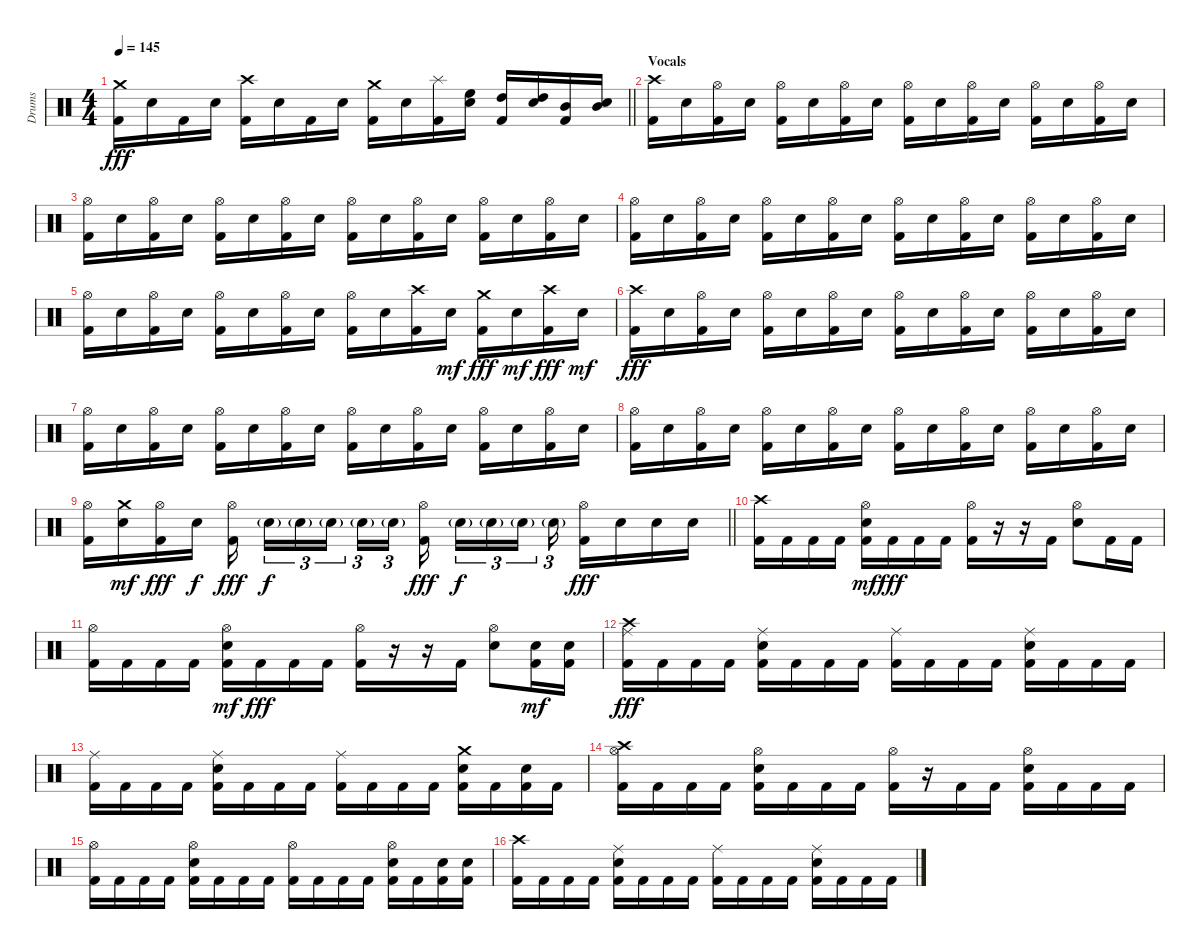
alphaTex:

\track ("Drums" "Drums") {instrument percussion}
\staff {score}
\articulation defaults
\ts (4 4)
\tempo 145
\clef neutral
\barLineRight lightlight
\ks c
("Crash medium (hit)" "Kick (hit) 2").16{dy fff} "Snare (hit) 2".16 "Kick (hit) 2".16 "Snare (hit) 2".16 ("Crash high (hit)" "Kick (hit) 2").16 "Snare (hit) 2".16 "Kick (hit) 2".16 "Snare (hit) 2".16 ("Crash medium (hit)" "Kick (hit) 2").16 "Snare (hit) 2".16 ("Splash (hit)" "Kick (hit) 2").16 ("High Floor Tom (hit)" "Snare (hit) 2").16 ("High Tom (hit)" "Kick (hit) 2").16 ("High Tom (hit)" "Snare (hit) 2").16 ("Mid Tom (hit)" "Kick (hit) 2").16 ("Mid Tom (hit)" "Snare (hit) 2").16 |
\section ("" "Vocals")
("Crash high (hit)" "Kick (hit) 2").16 "Snare (hit) 2".16 ("Hi-Hat (open)" "Kick (hit) 2").16 "Snare (hit) 2".16 ("Hi-Hat (open)" "Kick (hit) 2").16 "Snare (hit) 2".16 ("Hi-Hat (open)" "Kick (hit) 2").16 "Snare (hit) 2".16 ("Hi-Hat (open)" "Kick (hit) 2").16 "Snare (hit) 2".16 ("Hi-Hat (open)" "Kick (hit) 2").16 "Snare (hit) 2".16 ("Hi-Hat (open)" "Kick (hit) 2").16 "Snare (hit) 2".16 ("Hi-Hat (open)" "Kick (hit) 2").16 "Snare (hit) 2".16 |
("Hi-Hat (open)" "Kick (hit) 2").16 "Snare (hit) 2".16 ("Hi-Hat (open)" "Kick (hit) 2").16 "Snare (hit) 2".16 ("Hi-Hat (open)" "Kick (hit) 2").16 "Snare (hit) 2".16 ("Hi-Hat (open)" "Kick (hit) 2").16 "Snare (hit) 2".16 ("Hi-Hat (open)" "Kick (hit) 2").16 "Snare (hit) 2".16 ("Hi-Hat (open)" "Kick (hit) 2").16 "Snare (hit) 2".16 ("Hi-Hat (open)" "Kick (hit) 2").16 "Snare (hit) 2".16 ("Hi-Hat (open)" "Kick (hit) 2").16 "Snare (hit) 2".16 |
("Hi-Hat (open)" "Kick (hit) 2").16 "Snare (hit) 2".16 ("Hi-Hat (open)" "Kick (hit) 2").16 "Snare (hit) 2".16 ("Hi-Hat (open)" "Kick (hit) 2").16 "Snare (hit) 2".16 ("Hi-Hat (open)" "Kick (hit) 2").16 "Snare (hit) 2".16 ("Hi-Hat (open)" "Kick (hit) 2").16 "Snare (hit) 2".16 ("Hi-Hat (open)" "Kick (hit) 2").16 "Snare (hit) 2".16 ("Hi-Hat (open)" "Kick (hit) 2").16 "Snare (hit) 2".16 ("Hi-Hat (open)" "Kick (hit) 2").16 "Snare (hit) 2".16 |
("Hi-Hat (open)" "Kick (hit) 2").16 "Snare (hit) 2".16 ("Hi-Hat (open)" "Kick (hit) 2").16 "Snare (hit) 2".16 ("Hi-Hat (open)" "Kick (hit) 2").16 "Snare (hit) 2".16 ("Hi-Hat (open)" "Kick (hit) 2").16 "Snare (hit) 2".16 ("Hi-Hat (open)" "Kick (hit) 2").16 "Snare (hit) 2".16 ("Crash high (hit)" "Kick (hit) 2").16 "Snare (hit) 2".16{dy mf} ("Crash medium (hit)" "Kick (hit) 2").16{dy fff} "Snare (hit) 2".16{dy mf} ("Crash high (hit)" "Kick (hit) 2").16{dy fff} "Snare (hit) 2".16{dy mf} |
("Crash high (hit)" "Kick (hit) 2").16{dy fff} "Snare (hit) 2".16 ("Hi-Hat (open)" "Kick (hit) 2").16 "Snare (hit) 2".16 ("Hi-Hat (open)" "Kick (hit) 2").16 "Snare (hit) 2".16 ("Hi-Hat (open)" "Kick (hit) 2").16 "Snare (hit) 2".16 ("Hi-Hat (open)" "Kick (hit) 2").16 "Snare (hit) 2".16 ("Hi-Hat (open)" "Kick (hit) 2").16 "Snare (hit) 2".16 ("Hi-Hat (open)" "Kick (hit) 2").16 "Snare (hit) 2".16 ("Hi-Hat (open)" "Kick (hit) 2").16 "Snare (hit) 2".16 |
("Hi-Hat (open)" "Kick (hit) 2").16 "Snare (hit) 2".16 ("Hi-Hat (open)" "Kick (hit) 2").16 "Snare (hit) 2".16 ("Hi-Hat (open)" "Kick (hit) 2").16 "Snare (hit) 2".16 ("Hi-Hat (open)" "Kick (hit) 2").16 "Snare (hit) 2".16 ("Hi-Hat (open)" "Kick (hit) 2").16 "Snare (hit) 2".16 ("Hi-Hat (open)" "Kick (hit) 2").16 "Snare (hit) 2".16 ("Hi-Hat (open)" "Kick (hit) 2").16 "Snare (hit) 2".16 ("Hi-Hat (open)" "Kick (hit) 2").16 "Snare (hit) 2".16 |
("Hi-Hat (open)" "Kick (hit) 2").16 "Snare (hit) 2".16 ("Hi-Hat (open)" "Kick (hit) 2").16 "Snare (hit) 2".16 ("Hi-Hat (open)" "Kick (hit) 2").16 "Snare (hit) 2".16 ("Hi-Hat (open)" "Kick (hit) 2").16 "Snare (hit) 2".16 ("Hi-Hat (open)" "Kick (hit) 2").16 "Snare (hit) 2".16 ("Hi-Hat (open)" "Kick (hit) 2").16 "Snare (hit) 2".16 ("Hi-Hat (open)" "Kick (hit) 2").16 "Snare (hit) 2".16 ("Hi-Hat (open)" "Kick (hit) 2").16 "Snare (hit) 2".16 |
\barLineRight lightlight
("Hi-Hat (open)" "Kick (hit) 2").16 ("Crash medium (hit)" "Snare (hit) 2").16{dy mf} ("Hi-Hat (open)" "Kick (hit) 2").16{dy fff} "Snare (hit) 2".16{dy f} ("Hi-Hat (open)" "Kick (hit) 2").16{dy fff} "Snare (hit) 2"{g}.16{tu (3 2) dy f} "Snare (hit) 2"{g}.16{tu (3 2)} "Snare (hit) 2"{g}.16{tu (3 2)} "Snare (hit) 2"{g}.16{tu (3 2)} "Snare (hit) 2"{g}.16{tu (3 2)} ("Hi-Hat (open)" "Kick (hit) 2").16{dy fff} "Snare (hit) 2"{g}.16{tu (3 2) dy f} "Snare (hit) 2"{g}.16{tu (3 2)} "Snare (hit) 2"{g}.16{tu (3 2)} "Snare (hit) 2"{g}.16{tu (3 2)} ("Hi-Hat (open)" "Kick (hit) 2").16{dy fff} "Snare (hit) 2".16 "Snare (hit) 2".16 "Snare (hit) 2".16 |
("Crash high (hit)" "Kick (hit) 2").16 "Kick (hit) 2".16 "Kick (hit) 2".16 "Kick (hit) 2".16 ("Hi-Hat (open)" "Snare (hit) 2" "Kick (hit) 2").16{dy mf} "Kick (hit) 2".16{dy fff} "Kick (hit) 2".16 "Kick (hit) 2".16 ("Hi-Hat (open)" "Kick (hit) 2").16 r.16 r.16 "Kick (hit) 2".16 ("Hi-Hat (open)" "Snare (hit) 2").8 "Kick (hit) 2".16 "Kick (hit) 2".16 |
("Hi-Hat (open)" "Kick (hit) 2").16 "Kick (hit) 2".16 "Kick (hit) 2".16 "Kick (hit) 2".16 ("Hi-Hat (open)" "Snare (hit) 2" "Kick (hit) 2").16{dy mf} "Kick (hit) 2".16{dy fff} "Kick (hit) 2".16 "Kick (hit) 2".16 ("Hi-Hat (open)" "Kick (hit) 2").16 r.16 r.16 "Kick (hit) 2".16 ("Hi-Hat (open)" "Snare (hit) 2").8 ("Snare (hit) 2" "Kick (hit) 2").16{dy mf} ("Snare (hit) 2" "Kick (hit) 2").16 |
("Crash high (hit)" "Ride (middle)" "Kick (hit) 2").16{dy fff} "Kick (hit) 2".16 "Kick (hit) 2".16 "Kick (hit) 2".16 ("Ride (middle)" "Snare (hit) 2" "Kick (hit) 2").16 "Kick (hit) 2".16 "Kick (hit) 2".16 "Kick (hit) 2".16 ("Ride (middle)" "Kick (hit) 2").16 "Kick (hit) 2".16 "Kick (hit) 2".16 "Kick (hit) 2".16 ("Ride (middle)" "Snare (hit) 2" "Kick (hit) 2").16 "Kick (hit) 2".16 "Kick (hit) 2".16 "Kick (hit) 2".16 |
("Ride (middle)" "Kick (hit) 2").16 "Kick (hit) 2".16 "Kick (hit) 2".16 "Kick (hit) 2".16 ("Ride (middle)" "Snare (hit) 2" "Kick (hit) 2").16 "Kick (hit) 2".16 "Kick (hit) 2".16 "Kick (hit) 2".16 ("Ride (middle)" "Kick (hit) 2").16 "Kick (hit) 2".16 "Kick (hit) 2".16 "Kick (hit) 2".16 ("Crash medium (hit)" "Snare (hit) 2" "Kick (hit) 2").16 "Kick (hit) 2".16 ("Snare (hit) 2" "Kick (hit) 2").16 "Kick (hit) 2".16 |
("Crash high (hit)" "Hi-Hat (open)" "Kick (hit) 2").16 "Kick (hit) 2".16 "Kick (hit) 2".16 "Kick (hit) 2".16 ("Hi-Hat (open)" "Snare (hit) 2" "Kick (hit) 2").16 "Kick (hit) 2".16 "Kick (hit) 2".16 "Kick (hit) 2".16 ("Hi-Hat (open)" "Kick (hit) 2").16 r.16 "Kick (hit) 2".16 "Kick (hit) 2".16 ("Hi-Hat (open)" "Snare (hit) 2" "Kick (hit) 2").16 "Kick (hit) 2".16 "Kick (hit) 2".16 "Kick (hit) 2".16 |
("Hi-Hat (open)" "Kick (hit) 2").16 "Kick (hit) 2".16 "Kick (hit) 2".16 "Kick (hit) 2".16 ("Hi-Hat (open)" "Snare (hit) 2" "Kick (hit) 2").16 "Kick (hit) 2".16 "Kick (hit) 2".16 "Kick (hit) 2".16 ("Hi-Hat (open)" "Kick (hit) 2").16 "Kick (hit) 2".16 "Kick (hit) 2".16 "Kick (hit) 2".16 ("Hi-Hat (open)" "Snare (hit) 2" "Kick (hit) 2").16 "Kick (hit) 2".16 ("Snare (hit) 2" "Kick (hit) 2").16 ("Snare (hit) 2" "Kick (hit) 2").16 |
("Crash high (hit)" "Kick (hit) 2").16 "Kick (hit) 2".16 "Kick (hit) 2".16 "Kick (hit) 2".16 ("Ride (middle)" "Snare (hit) 2" "Kick (hit) 2").16 "Kick (hit) 2".16 "Kick (hit) 2".16 "Kick (hit) 2".16 ("Ride (middle)" "Kick (hit) 2").16 "Kick (hit) 2".16 "Kick (hit) 2".16 "Kick (hit) 2".16 ("Ride (middle)" "Snare (hit) 2" "Kick (hit) 2").16 "Kick (hit) 2".16 "Kick (hit) 2".16 "Kick (hit) 2".16
